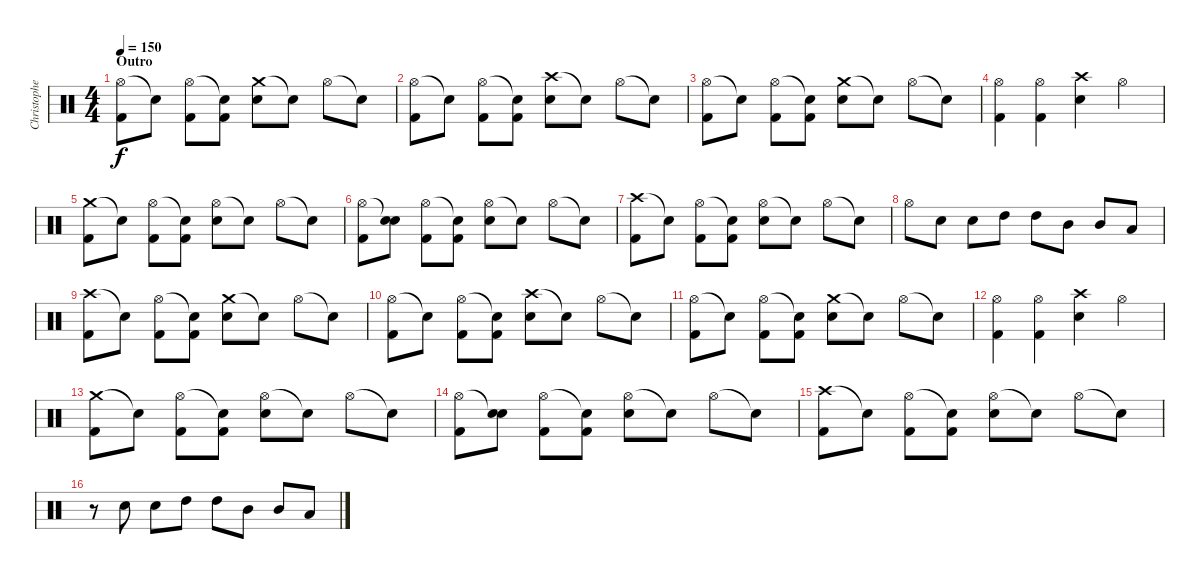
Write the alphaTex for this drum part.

\track ("Christopher Schneider" "Christophe") {instrument percussion}
\staff {score}
\articulation defaults
\ts (4 4)
\section ("" "Outro")
\tempo 150
\clef neutral
\ks c
("Hi-Hat (open)" "Kick (hit) 2").8{dy f volume 16} "Snare (hit)"{t}.8 ("Hi-Hat (open)" "Kick (hit) 2").8 ("Snare (hit)"{t} "Kick (hit) 2").8 ("Crash medium (hit)" "Electric Snare (hit)").8 "Snare (hit)"{t}.8 "Hi-Hat (open)".8 "Snare (hit)"{t}.8 |
("Hi-Hat (open)" "Kick (hit) 2").8 "Snare (hit)"{t}.8 ("Hi-Hat (open)" "Kick (hit) 2").8 ("Snare (hit)"{t} "Kick (hit) 2").8 ("Crash high (hit)" "Electric Snare (hit)").8 "Snare (hit)"{t}.8 "Hi-Hat (open)".8 "Snare (hit)"{t}.8 |
("Hi-Hat (open)" "Kick (hit) 2").8 "Snare (hit)"{t}.8 ("Hi-Hat (open)" "Kick (hit) 2").8 ("Snare (hit)"{t} "Kick (hit) 2").8 ("Crash medium (hit)" "Electric Snare (hit)").8 "Snare (hit)"{t}.8 "Hi-Hat (open)".8 "Snare (hit)"{t}.8 |
("Hi-Hat (open)" "Kick (hit) 2").4 ("Hi-Hat (open)" "Kick (hit) 2").4 ("Crash high (hit)" "Electric Snare (hit)").4 "Hi-Hat (open)".4 |
("Crash medium (hit)" "Kick (hit) 2").8 "Snare (hit)"{t}.8 ("Hi-Hat (open)" "Kick (hit) 2").8 ("Snare (hit)"{t} "Kick (hit) 2").8 ("Hi-Hat (open)" "Electric Snare (hit)").8 "Snare (hit)"{t}.8 "Hi-Hat (open)".8 "Snare (hit)"{t}.8 |
("Hi-Hat (open)" "Kick (hit) 2").8 ("Snare (hit)"{t} "Electric Snare (hit)").8 ("Hi-Hat (open)" "Kick (hit) 2").8 ("Snare (hit)"{t} "Kick (hit) 2").8 ("Hi-Hat (open)" "Electric Snare (hit)").8 "Snare (hit)"{t}.8 "Hi-Hat (open)".8 "Snare (hit)"{t}.8 |
("Crash high (hit)" "Kick (hit) 2").8 "Snare (hit)"{t}.8 ("Hi-Hat (open)" "Kick (hit) 2").8 ("Snare (hit)"{t} "Kick (hit) 2").8 ("Hi-Hat (open)" "Electric Snare (hit)").8 "Snare (hit)"{t}.8 "Hi-Hat (open)".8 "Snare (hit)"{t}.8 |
"Hi-Hat (open)".8 "Electric Snare (hit)".8 "Electric Snare (hit)".8 "High Tom (hit)".8 "High Tom (hit)".8 "Mid Tom (hit)".8 "Mid Tom (hit)".8 "Low Tom (hit)".8 |
("Crash high (hit)" "Kick (hit) 2").8{volume 16} "Snare (hit)"{t}.8 ("Hi-Hat (open)" "Kick (hit) 2").8 ("Snare (hit)"{t} "Kick (hit) 2").8 ("Crash medium (hit)" "Electric Snare (hit)").8 "Snare (hit)"{t}.8 "Hi-Hat (open)".8 "Snare (hit)"{t}.8 |
("Hi-Hat (open)" "Kick (hit) 2").8 "Snare (hit)"{t}.8 ("Hi-Hat (open)" "Kick (hit) 2").8 ("Snare (hit)"{t} "Kick (hit) 2").8 ("Crash high (hit)" "Electric Snare (hit)").8 "Snare (hit)"{t}.8 "Hi-Hat (open)".8 "Snare (hit)"{t}.8 |
("Hi-Hat (open)" "Kick (hit) 2").8 "Snare (hit)"{t}.8 ("Hi-Hat (open)" "Kick (hit) 2").8 ("Snare (hit)"{t} "Kick (hit) 2").8 ("Crash medium (hit)" "Electric Snare (hit)").8 "Snare (hit)"{t}.8 "Hi-Hat (open)".8 "Snare (hit)"{t}.8 |
("Hi-Hat (open)" "Kick (hit) 2").4 ("Hi-Hat (open)" "Kick (hit) 2").4 ("Crash high (hit)" "Electric Snare (hit)").4 "Hi-Hat (open)".4 |
("Crash medium (hit)" "Kick (hit) 2").8 "Snare (hit)"{t}.8 ("Hi-Hat (open)" "Kick (hit) 2").8 ("Snare (hit)"{t} "Kick (hit) 2").8 ("Hi-Hat (open)" "Electric Snare (hit)").8 "Snare (hit)"{t}.8 "Hi-Hat (open)".8 "Snare (hit)"{t}.8 |
("Hi-Hat (open)" "Kick (hit) 2").8 ("Snare (hit)"{t} "Electric Snare (hit)").8 ("Hi-Hat (open)" "Kick (hit) 2").8 ("Snare (hit)"{t} "Kick (hit) 2").8 ("Hi-Hat (open)" "Electric Snare (hit)").8 "Snare (hit)"{t}.8 "Hi-Hat (open)".8 "Snare (hit)"{t}.8 |
("Crash high (hit)" "Kick (hit) 2").8 "Snare (hit)"{t}.8 ("Hi-Hat (open)" "Kick (hit) 2").8 ("Snare (hit)"{t} "Kick (hit) 2").8 ("Hi-Hat (open)" "Electric Snare (hit)").8 "Snare (hit)"{t}.8 "Hi-Hat (open)".8 "Snare (hit)"{t}.8 |
r.8 "Electric Snare (hit)".8 "Electric Snare (hit)".8 "High Tom (hit)".8 "High Tom (hit)".8 "Mid Tom (hit)".8 "Mid Tom (hit)".8 "Low Tom (hit)".8
